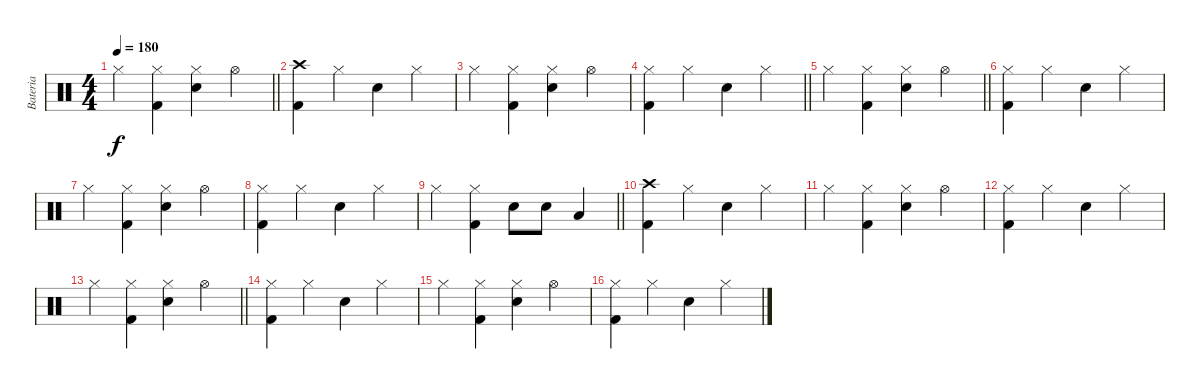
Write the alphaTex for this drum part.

\track ("Bateria" "Bateria") {instrument percussion}
\staff {score}
\articulation defaults
\ts (4 4)
\tempo 180
\clef neutral
\barLineRight lightlight
\ks c "Hi-Hat (closed)".4{dy f}
("Hi-Hat (closed)" "Kick (hit) 2").4 ("Hi-Hat (closed)" "Electric Snare (hit)").4 "Hi-Hat (open)".4 |
("Crash high (hit)" "Kick (hit) 2").4 "Hi-Hat (closed)".4 "Electric Snare (hit)".4 "Hi-Hat (closed)".4 |
"Hi-Hat (closed)".4 ("Hi-Hat (closed)" "Kick (hit) 2").4 ("Hi-Hat (closed)" "Electric Snare (hit)").4 "Hi-Hat (open)".4 |
\barLineRight lightlight
("Hi-Hat (closed)" "Kick (hit) 2").4 "Hi-Hat (closed)".4 "Electric Snare (hit)".4 "Hi-Hat (closed)".4 |
\section ("" "")
\barLineRight lightlight "Hi-Hat (closed)".4
("Hi-Hat (closed)" "Kick (hit) 2").4 ("Hi-Hat (closed)" "Electric Snare (hit)").4 "Hi-Hat (open)".4 |
\section ("" "")
("Hi-Hat (closed)" "Kick (hit) 2").4 "Hi-Hat (closed)".4 "Electric Snare (hit)".4 "Hi-Hat (closed)".4 |
"Hi-Hat (closed)".4 ("Hi-Hat (closed)" "Kick (hit) 2").4 ("Hi-Hat (closed)" "Electric Snare (hit)").4 "Hi-Hat (open)".4 |
("Hi-Hat (closed)" "Kick (hit) 2").4 "Hi-Hat (closed)".4 "Electric Snare (hit)".4 "Hi-Hat (closed)".4 |
\barLineRight lightlight "Hi-Hat (closed)".4
("Hi-Hat (closed)" "Kick (hit) 2").4 "Electric Snare (hit)".8 "Electric Snare (hit)".8 "Low Tom (hit)".4 |
("Crash high (hit)" "Kick (hit) 2").4 "Hi-Hat (closed)".4 "Electric Snare (hit)".4 "Hi-Hat (closed)".4 |
"Hi-Hat (closed)".4 ("Hi-Hat (closed)" "Kick (hit) 2").4 ("Hi-Hat (closed)" "Electric Snare (hit)").4 "Hi-Hat (open)".4 |
("Hi-Hat (closed)" "Kick (hit) 2").4 "Hi-Hat (closed)".4 "Electric Snare (hit)".4 "Hi-Hat (closed)".4 |
\barLineRight lightlight "Hi-Hat (closed)".4
("Hi-Hat (closed)" "Kick (hit) 2").4 ("Hi-Hat (closed)" "Electric Snare (hit)").4 "Hi-Hat (open)".4 |
\section ("" "")
("Hi-Hat (closed)" "Kick (hit) 2").4 "Hi-Hat (closed)".4 "Electric Snare (hit)".4 "Hi-Hat (closed)".4 |
"Hi-Hat (closed)".4 ("Hi-Hat (closed)" "Kick (hit) 2").4 ("Hi-Hat (closed)" "Electric Snare (hit)").4 "Hi-Hat (open)".4 |
("Hi-Hat (closed)" "Kick (hit) 2").4 "Hi-Hat (closed)".4 "Electric Snare (hit)".4 "Hi-Hat (closed)".4
